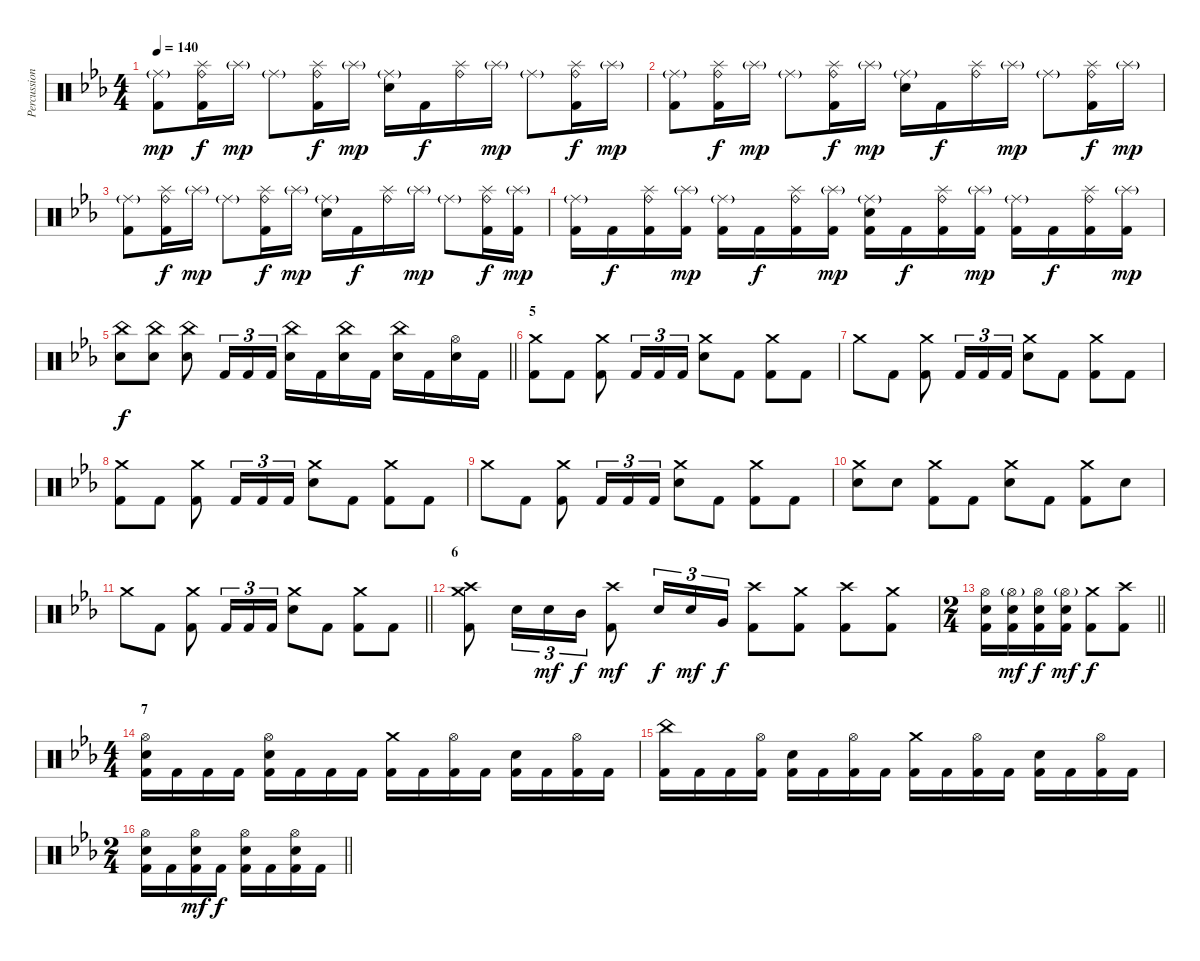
\track ("Percussion" "Percussion") {instrument percussion}
\staff {score}
\articulation defaults
\ts (4 4)
\tempo 140
\clef neutral
\ks cminor
("Ride (middle)"{g} "Kick (hit) 2").8{dy mp} ("Ride (bell)" "Splash (hit)" "Kick (hit) 2").16{dy f} "Splash (hit)"{g}.16{dy mp} "Ride (middle)"{g}.8 ("Ride (bell)" "Splash (hit)" "Kick (hit) 2").16{dy f} "Splash (hit)"{g}.16{dy mp} ("Ride (middle)"{g} "Snare (hit) 2").16 "Kick (hit) 2".16{dy f} ("Ride (bell)" "Splash (hit)").16 "Splash (hit)"{g}.16{dy mp} "Ride (middle)"{g}.8 ("Ride (bell)" "Splash (hit)" "Kick (hit) 2").16{dy f} "Splash (hit)"{g}.16{dy mp} |
("Ride (middle)"{g} "Kick (hit) 2").8 ("Ride (bell)" "Splash (hit)" "Kick (hit) 2").16{dy f} "Splash (hit)"{g}.16{dy mp} "Ride (middle)"{g}.8 ("Ride (bell)" "Splash (hit)" "Kick (hit) 2").16{dy f} "Splash (hit)"{g}.16{dy mp} ("Ride (middle)"{g} "Snare (hit) 2").16 "Kick (hit) 2".16{dy f} ("Ride (bell)" "Splash (hit)").16 "Splash (hit)"{g}.16{dy mp} "Ride (middle)"{g}.8 ("Ride (bell)" "Splash (hit)" "Kick (hit) 2").16{dy f} "Splash (hit)"{g}.16{dy mp} |
("Ride (middle)"{g} "Kick (hit) 2").8 ("Ride (bell)" "Splash (hit)" "Kick (hit) 2").16{dy f} "Splash (hit)"{g}.16{dy mp} "Ride (middle)"{g}.8 ("Ride (bell)" "Splash (hit)" "Kick (hit) 2").16{dy f} "Splash (hit)"{g}.16{dy mp} ("Ride (middle)"{g} "Snare (hit) 2").16 "Kick (hit) 2".16{dy f} ("Ride (bell)" "Splash (hit)").16 "Splash (hit)"{g}.16{dy mp} "Ride (middle)"{g}.8 ("Ride (bell)" "Splash (hit)" "Kick (hit) 2").16{dy f} ("Splash (hit)"{g} "Kick (hit) 2").16{dy mp} |
("Ride (middle)"{g} "Kick (hit) 2").16 "Kick (hit) 2".16{dy f} ("Ride (bell)" "Splash (hit)" "Kick (hit) 2").16 ("Splash (hit)"{g} "Kick (hit) 2").16{dy mp} ("Ride (middle)"{g} "Kick (hit) 2").16 "Kick (hit) 2".16{dy f} ("Ride (bell)" "Splash (hit)" "Kick (hit) 2").16 ("Splash (hit)"{g} "Kick (hit) 2").16{dy mp} ("Ride (middle)"{g} "Snare (hit) 2" "Kick (hit) 2").16 "Kick (hit) 2".16{dy f} ("Ride (bell)" "Splash (hit)" "Kick (hit) 2").16 ("Splash (hit)"{g} "Kick (hit) 2").16{dy mp} ("Ride (middle)"{g} "Kick (hit) 2").16 "Kick (hit) 2".16{dy f} ("Ride (bell)" "Splash (hit)" "Kick (hit) 2").16 ("Splash (hit)"{g} "Kick (hit) 2").16{dy mp} |
\barLineRight lightlight
("China (hit)" "Snare (hit) 2").8{dy f} ("China (hit)" "Snare (hit) 2").8 ("China (hit)" "Snare (hit) 2").8 "Kick (hit) 2".16{tu (3 2)} "Kick (hit) 2".16{tu (3 2)} "Kick (hit) 2".16{tu (3 2)} ("China (hit)" "Snare (hit) 2").16 "Kick (hit) 2".16 ("China (hit)" "Snare (hit) 2").16 "Kick (hit) 2".16 ("China (hit)" "Snare (hit) 2").16 "Kick (hit) 2".16 ("Hi-Hat (open)" "Snare (hit) 2").16 "Kick (hit) 2".16 |
\section ("" "5")
("Crash medium (hit)" "Kick (hit) 2").8 "Kick (hit) 2".8 ("Crash medium (hit)" "Kick (hit) 2").8 "Kick (hit) 2".16{tu (3 2)} "Kick (hit) 2".16{tu (3 2)} "Kick (hit) 2".16{tu (3 2)} ("Crash medium (hit)" "Snare (hit) 2").8 "Kick (hit) 2".8 ("Crash medium (hit)" "Kick (hit) 2").8 "Kick (hit) 2".8 |
"Crash medium (hit)".8 "Kick (hit) 2".8 ("Crash medium (hit)" "Kick (hit) 2").8 "Kick (hit) 2".16{tu (3 2)} "Kick (hit) 2".16{tu (3 2)} "Kick (hit) 2".16{tu (3 2)} ("Crash medium (hit)" "Snare (hit) 2").8 "Kick (hit) 2".8 ("Crash medium (hit)" "Kick (hit) 2").8 "Kick (hit) 2".8 |
("Crash medium (hit)" "Kick (hit) 2").8 "Kick (hit) 2".8 ("Crash medium (hit)" "Kick (hit) 2").8 "Kick (hit) 2".16{tu (3 2)} "Kick (hit) 2".16{tu (3 2)} "Kick (hit) 2".16{tu (3 2)} ("Crash medium (hit)" "Snare (hit) 2").8 "Kick (hit) 2".8 ("Crash medium (hit)" "Kick (hit) 2").8 "Kick (hit) 2".8 |
"Crash medium (hit)".8 "Kick (hit) 2".8 ("Crash medium (hit)" "Kick (hit) 2").8 "Kick (hit) 2".16{tu (3 2)} "Kick (hit) 2".16{tu (3 2)} "Kick (hit) 2".16{tu (3 2)} ("Crash medium (hit)" "Snare (hit) 2").8 "Kick (hit) 2".8 ("Crash medium (hit)" "Kick (hit) 2").8 "Kick (hit) 2".8 |
("Crash medium (hit)" "Snare (hit) 2").8 "Snare (hit) 2".8 ("Crash medium (hit)" "Kick (hit) 2").8 "Kick (hit) 2".8 ("Crash medium (hit)" "Snare (hit) 2").8 "Kick (hit) 2".8 ("Crash medium (hit)" "Kick (hit) 2").8 "Snare (hit) 2".8 |
\barLineRight lightlight "Crash medium (hit)".8 "Kick (hit) 2".8
("Crash medium (hit)" "Kick (hit) 2").8 "Kick (hit) 2".16{tu (3 2)} "Kick (hit) 2".16{tu (3 2)} "Kick (hit) 2".16{tu (3 2)} ("Crash medium (hit)" "Snare (hit) 2").8 "Kick (hit) 2".8 ("Crash medium (hit)" "Kick (hit) 2").8 "Kick (hit) 2".8 |
\section ("" "6")
("Crash medium (hit)" "Crash high (hit)" "Kick (hit) 2").8 "Snare (hit) 2".16{tu (3 2)} "Snare (hit) 2".16{tu (3 2) dy mf} "Mid Tom (hit)".16{tu (3 2) dy f} ("Crash high (hit)" "Kick (hit) 2").8{dy mf} "Snare (hit) 2".16{tu (3 2) dy f} "Snare (hit) 2".16{tu (3 2) dy mf} "Very Low Tom (hit)".16{tu (3 2) dy f} ("Crash high (hit)" "Kick (hit) 2").8 ("Crash medium (hit)" "Kick (hit) 2").8 ("Crash high (hit)" "Kick (hit) 2").8 ("Crash medium (hit)" "Kick (hit) 2").8 |
\ts (2 4)
\barLineRight lightlight
("Hi-Hat (open)" "Snare (hit) 2" "Kick (hit) 2").16 ("Hi-Hat (open)"{g} "Snare (hit) 2" "Kick (hit) 2").16{dy mf} ("Hi-Hat (open)" "Snare (hit) 2" "Kick (hit) 2").16{dy f} ("Hi-Hat (open)"{g} "Snare (hit) 2" "Kick (hit) 2").16{dy mf} ("Crash medium (hit)" "Kick (hit) 2").8{dy f} ("Crash high (hit)" "Kick (hit) 2").8 |
\ts (4 4)
\section ("" "7")
("Hi-Hat (open)" "Snare (hit) 2" "Kick (hit) 2").16 "Kick (hit) 2".16 "Kick (hit) 2".16 "Kick (hit) 2".16 ("Hi-Hat (open)" "Snare (hit) 2" "Kick (hit) 2").16 "Kick (hit) 2".16 "Kick (hit) 2".16 "Kick (hit) 2".16 ("Crash medium (hit)" "Kick (hit) 2").16 "Kick (hit) 2".16 ("Hi-Hat (open)" "Kick (hit) 2").16 "Kick (hit) 2".16 ("Snare (hit) 2" "Kick (hit) 2").16 "Kick (hit) 2".16 ("Hi-Hat (open)" "Kick (hit) 2").16 "Kick (hit) 2".16 |
("China (hit)" "Kick (hit) 2").16 "Kick (hit) 2".16 "Kick (hit) 2".16 ("Hi-Hat (open)" "Kick (hit) 2").16 ("Snare (hit) 2" "Kick (hit) 2").16 "Kick (hit) 2".16 ("Hi-Hat (open)" "Kick (hit) 2").16 "Kick (hit) 2".16 ("Crash medium (hit)" "Kick (hit) 2").16 "Kick (hit) 2".16 ("Hi-Hat (open)" "Kick (hit) 2").16 "Kick (hit) 2".16 ("Snare (hit) 2" "Kick (hit) 2").16 "Kick (hit) 2".16 ("Hi-Hat (open)" "Kick (hit) 2").16 "Kick (hit) 2".16 |
\ts (2 4)
\barLineRight lightlight
("Hi-Hat (open)" "Snare (hit) 2" "Kick (hit) 2").16 "Kick (hit) 2".16 ("Hi-Hat (open)" "Snare (hit) 2" "Kick (hit) 2").16{dy mf} "Kick (hit) 2".16{dy f} ("Hi-Hat (open)" "Snare (hit) 2" "Kick (hit) 2").16 "Kick (hit) 2".16 ("Hi-Hat (open)" "Snare (hit) 2" "Kick (hit) 2").16 "Kick (hit) 2".16
